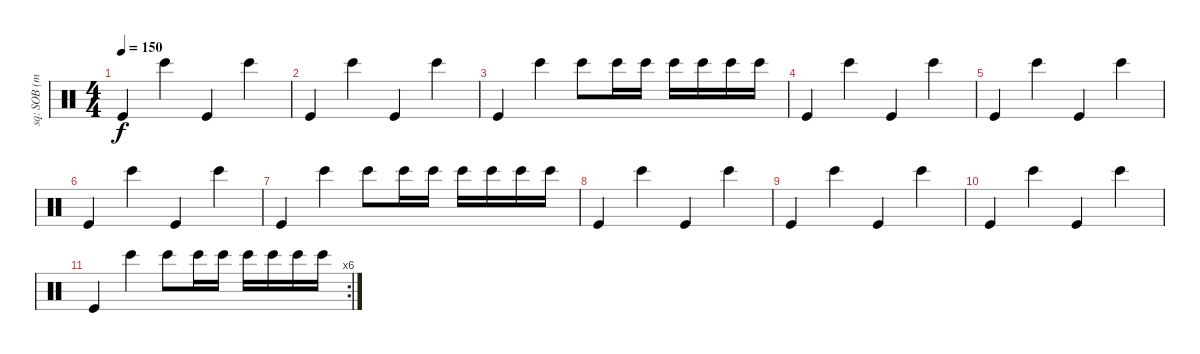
\track ("sq: SOB (metal_up_your_ass@2die4.com)" "sq: SOB (m") {instrument percussion}
\staff {score}
\articulation defaults
\ts (4 4)
\tempo 150
\clef neutral
\ks c "Kick (hit)".4{dy f} "Bongo High (hit)".4 "Kick (hit)".4 "Bongo High (hit)".4
|
"Kick (hit)".4 "Bongo High (hit)".4 "Kick (hit)".4 "Bongo High (hit)".4 |
"Kick (hit)".4 "Bongo High (hit)".4 "Bongo High (hit)".8 "Bongo High (hit)".16 "Bongo High (hit)".16 "Bongo High (hit)".16 "Bongo High (hit)".16 "Bongo High (hit)".16 "Bongo High (hit)".16 |
"Kick (hit)".4 "Bongo High (hit)".4 "Kick (hit)".4 "Bongo High (hit)".4 |
"Kick (hit)".4 "Bongo High (hit)".4 "Kick (hit)".4 "Bongo High (hit)".4 |
"Kick (hit)".4 "Bongo High (hit)".4 "Kick (hit)".4 "Bongo High (hit)".4 |
"Kick (hit)".4 "Bongo High (hit)".4 "Bongo High (hit)".8 "Bongo High (hit)".16 "Bongo High (hit)".16 "Bongo High (hit)".16 "Bongo High (hit)".16 "Bongo High (hit)".16 "Bongo High (hit)".16 |
"Kick (hit)".4 "Bongo High (hit)".4 "Kick (hit)".4 "Bongo High (hit)".4 |
"Kick (hit)".4 "Bongo High (hit)".4 "Kick (hit)".4 "Bongo High (hit)".4 |
"Kick (hit)".4 "Bongo High (hit)".4 "Kick (hit)".4 "Bongo High (hit)".4 |
\rc 6 "Kick (hit)".4 "Bongo High (hit)".4 "Bongo High (hit)".8 "Bongo High (hit)".16 "Bongo High (hit)".16 "Bongo High (hit)".16 "Bongo High (hit)".16 "Bongo High (hit)".16 "Bongo High (hit)".16
